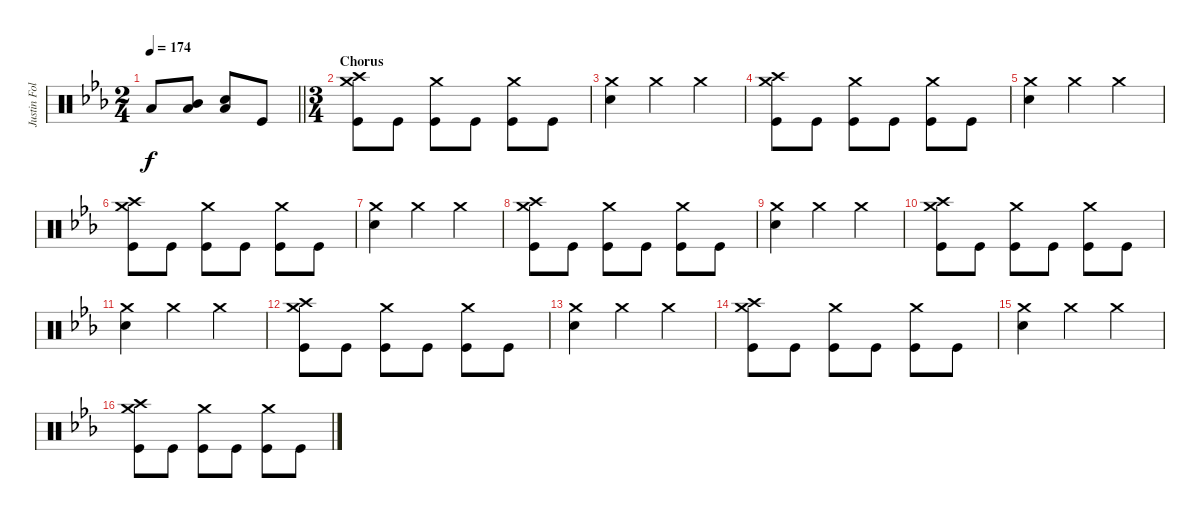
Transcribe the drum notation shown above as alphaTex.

\track ("Justin Foley" "Justin Fol") {instrument percussion}
\staff {score}
\articulation defaults
\ts (2 4)
\tempo 174
\clef neutral
\barLineRight lightlight
\ks cminor "Low Tom (hit)".8{dy f}
("Low Tom (hit)" "Mid Tom (hit)").8 ("Snare (hit) 2" "Low Floor Tom (hit)").8 "Kick (hit)".8 |
\ts (3 4)
\section ("" "Chorus")
("Crash medium (hit)" "Kick (hit)" "Crash high (hit)").8 "Kick (hit)".8 ("Crash medium (hit)" "Kick (hit)").8 "Kick (hit)".8 ("Crash medium (hit)" "Kick (hit)").8 "Kick (hit)".8 |
("Crash medium (hit)" "Snare (hit) 2").4 "Crash medium (hit)".4 "Crash medium (hit)".4 |
("Kick (hit)" "Crash high (hit)" "Crash medium (hit)").8 "Kick (hit)".8 ("Crash medium (hit)" "Kick (hit)").8 "Kick (hit)".8 ("Crash medium (hit)" "Kick (hit)").8 "Kick (hit)".8 |
("Crash medium (hit)" "Snare (hit) 2").4 "Crash medium (hit)".4 "Crash medium (hit)".4 |
("Kick (hit)" "Crash high (hit)" "Crash medium (hit)").8 "Kick (hit)".8 ("Crash medium (hit)" "Kick (hit)").8 "Kick (hit)".8 ("Crash medium (hit)" "Kick (hit)").8 "Kick (hit)".8 |
("Crash medium (hit)" "Snare (hit) 2").4 "Crash medium (hit)".4 "Crash medium (hit)".4 |
("Kick (hit)" "Crash high (hit)" "Crash medium (hit)").8 "Kick (hit)".8 ("Crash medium (hit)" "Kick (hit)").8 "Kick (hit)".8 ("Crash medium (hit)" "Kick (hit)").8 "Kick (hit)".8 |
("Crash medium (hit)" "Snare (hit) 2").4 "Crash medium (hit)".4 "Crash medium (hit)".4 |
("Crash high (hit)" "Kick (hit)" "Crash medium (hit)").8 "Kick (hit)".8 ("Crash medium (hit)" "Kick (hit)").8 "Kick (hit)".8 ("Crash medium (hit)" "Kick (hit)").8 "Kick (hit)".8 |
("Crash medium (hit)" "Snare (hit) 2").4 "Crash medium (hit)".4 "Crash medium (hit)".4 |
("Kick (hit)" "Crash high (hit)" "Crash medium (hit)").8 "Kick (hit)".8 ("Crash medium (hit)" "Kick (hit)").8 "Kick (hit)".8 ("Crash medium (hit)" "Kick (hit)").8 "Kick (hit)".8 |
("Crash medium (hit)" "Snare (hit) 2").4 "Crash medium (hit)".4 "Crash medium (hit)".4 |
("Kick (hit)" "Crash high (hit)" "Crash medium (hit)").8 "Kick (hit)".8 ("Crash medium (hit)" "Kick (hit)").8 "Kick (hit)".8 ("Crash medium (hit)" "Kick (hit)").8 "Kick (hit)".8 |
("Crash medium (hit)" "Snare (hit) 2").4 "Crash medium (hit)".4 "Crash medium (hit)".4 |
("Kick (hit)" "Crash high (hit)" "Crash medium (hit)").8 "Kick (hit)".8 ("Crash medium (hit)" "Kick (hit)").8 "Kick (hit)".8 ("Crash medium (hit)" "Kick (hit)").8 "Kick (hit)".8
